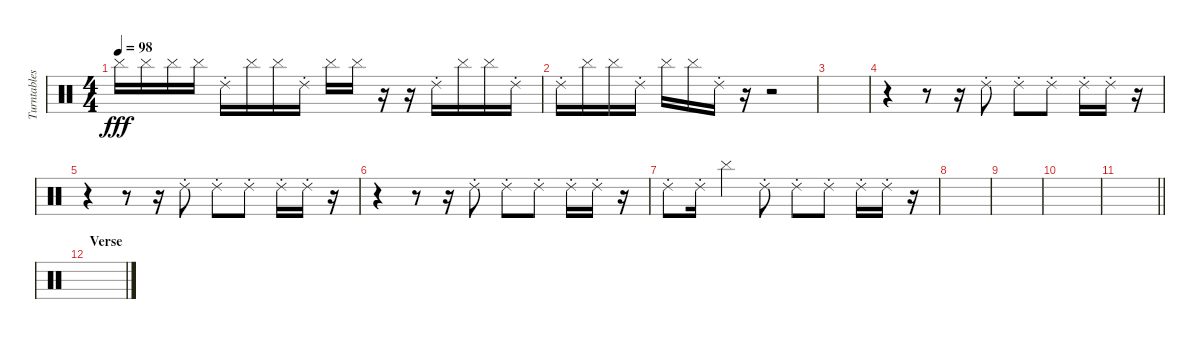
\track ("Turntables - Joe Hahn" "Turntables") {instrument percussion}
\staff {score}
\articulation defaults
\ts (4 4)
\tempo 98
\clef neutral
\ks c "Cymbal (hit)".16{dy fff} "Cymbal (hit)".16 "Cymbal (hit)".16 "Cymbal (hit)".16 "Ride (choke) 2".16 "Cymbal (hit)".16 "Cymbal (hit)".16 "Ride (choke) 2".16 "Cymbal (hit)".16 "Cymbal (hit)".16
r.16 r.16 "Ride (choke) 2".16 "Cymbal (hit)".16 "Cymbal (hit)".16 "Ride (choke) 2".16 |
"Ride (choke) 2".16 "Cymbal (hit)".16 "Cymbal (hit)".16 "Ride (choke) 2".16 "Cymbal (hit)".16 "Cymbal (hit)".16 "Ride (choke) 2".16 r.16 r.2 |
|
r.4 r.8 r.16 "Ride (choke) 2".8 "Ride (choke) 2".8 "Ride (choke) 2".8 "Ride (choke) 2".16 "Ride (choke) 2".16 r.16 |
r.4 r.8 r.16 "Ride (choke) 2".8 "Ride (choke) 2".8 "Ride (choke) 2".8 "Ride (choke) 2".16 "Ride (choke) 2".16 r.16 |
r.4 r.8 r.16 "Ride (choke) 2".8 "Ride (choke) 2".8 "Ride (choke) 2".8 "Ride (choke) 2".16 "Ride (choke) 2".16 r.16 |
"Ride (choke) 2".8 "Ride (choke) 2".16 "Cymbal (hit)".4 "Ride (choke) 2".8 "Ride (choke) 2".8 "Ride (choke) 2".8 "Ride (choke) 2".16 "Ride (choke) 2".16 r.16 |
|
|
|
\barLineRight lightlight
|
\section ("" "Verse")
